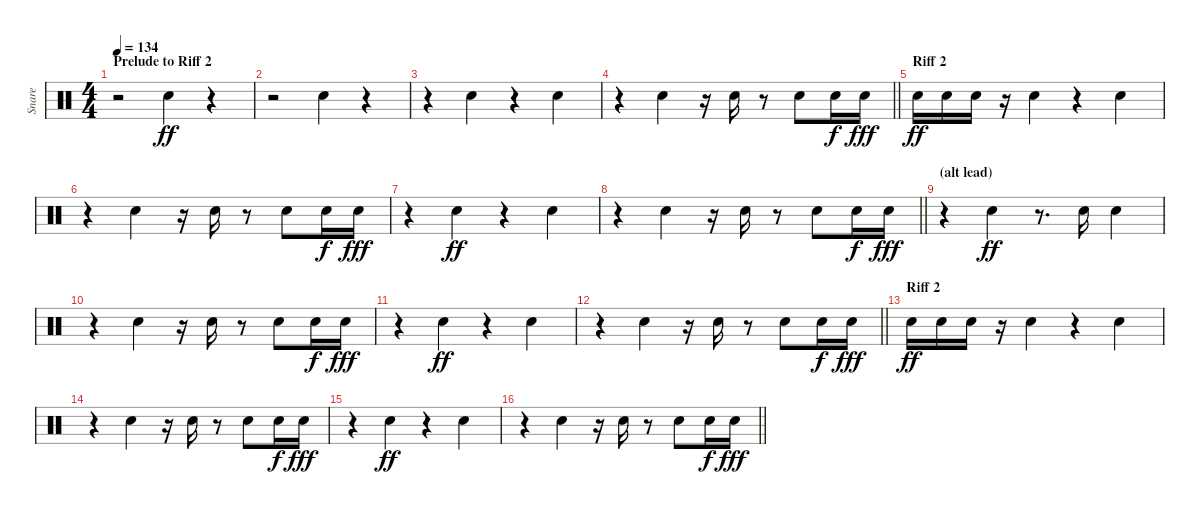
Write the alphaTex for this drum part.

\track ("Snare" "Snare") {instrument percussion}
\staff {score}
\articulation defaults
\ts (4 4)
\section ("" "Prelude to Riff 2")
\tempo 134
\clef neutral
\ks c
r.2{dy fff} "Snare (hit) 2".4{dy ff} r.4 |
r.2 "Snare (hit) 2".4 r.4 |
r.4 "Snare (hit) 2".4 r.4 "Snare (hit) 2".4 |
\barLineRight lightlight
r.4 "Snare (hit) 2".4 r.16 "Snare (hit) 2".16 r.8 "Snare (hit) 2".8 "Snare (hit) 2".16{dy f} "Snare (hit) 2".16{dy fff} |
\section ("" "Riff 2")
"Metronome (bell)".16{dy ff} "Metronome (bell)".16 "Metronome (bell)".16 r.16 "Snare (hit) 2".4 r.4 "Snare (hit) 2".4 |
r.4 "Snare (hit) 2".4 r.16 "Snare (hit) 2".16 r.8 "Snare (hit) 2".8 "Snare (hit) 2".16{dy f} "Snare (hit) 2".16{dy fff} |
r.4 "Snare (hit) 2".4{dy ff} r.4 "Snare (hit) 2".4 |
\barLineRight lightlight
r.4 "Snare (hit) 2".4 r.16 "Snare (hit) 2".16 r.8 "Snare (hit) 2".8 "Snare (hit) 2".16{dy f} "Snare (hit) 2".16{dy fff} |
\section ("" "(alt lead)")
r.4 "Snare (hit) 2".4{dy ff} r.8{d} "Electric Snare (hit)".16 "Snare (hit) 2".4 |
r.4 "Snare (hit) 2".4 r.16 "Snare (hit) 2".16 r.8 "Snare (hit) 2".8 "Snare (hit) 2".16{dy f} "Snare (hit) 2".16{dy fff} |
r.4 "Snare (hit) 2".4{dy ff} r.4 "Snare (hit) 2".4 |
\barLineRight lightlight
r.4 "Snare (hit) 2".4 r.16 "Snare (hit) 2".16 r.8 "Snare (hit) 2".8 "Snare (hit) 2".16{dy f} "Snare (hit) 2".16{dy fff} |
\section ("" "Riff 2")
"Metronome (bell)".16{dy ff} "Metronome (bell)".16 "Metronome (bell)".16 r.16 "Snare (hit) 2".4 r.4 "Snare (hit) 2".4 |
r.4 "Snare (hit) 2".4 r.16 "Snare (hit) 2".16 r.8 "Snare (hit) 2".8 "Snare (hit) 2".16{dy f} "Snare (hit) 2".16{dy fff} |
r.4 "Snare (hit) 2".4{dy ff} r.4 "Snare (hit) 2".4 |
\barLineRight lightlight
r.4 "Snare (hit) 2".4 r.16 "Snare (hit) 2".16 r.8 "Snare (hit) 2".8 "Snare (hit) 2".16{dy f} "Snare (hit) 2".16{dy fff}
